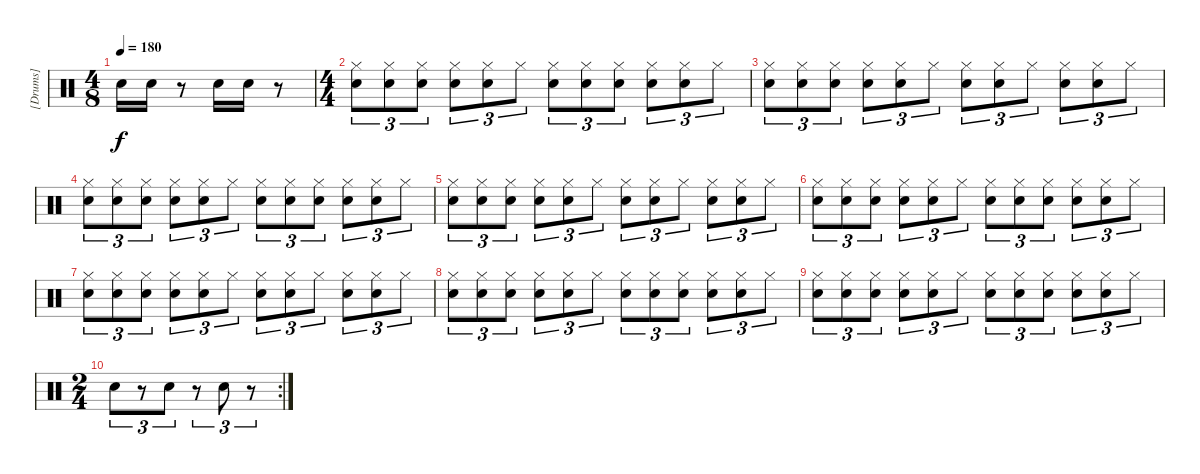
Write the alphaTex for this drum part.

\track ("[Drums]" "[Drums]") {instrument percussion}
\staff {score}
\articulation defaults
\ts (4 8)
\tempo 180
\clef neutral
\ks c "Snare (hit) 2".16{dy f} "Snare (hit) 2".16
r.8 "Snare (hit) 2".16 "Snare (hit) 2".16 r.8 |
\ts (4 4)
("Hi-Hat (closed)" "Snare (hit) 2").8{tu (3 2)} ("Hi-Hat (closed)" "Snare (hit) 2").8{tu (3 2)} ("Hi-Hat (closed)" "Snare (hit) 2").8{tu (3 2)} ("Hi-Hat (closed)" "Snare (hit) 2").8{tu (3 2)} ("Hi-Hat (closed)" "Snare (hit) 2").8{tu (3 2)} "Hi-Hat (closed)".8{tu (3 2)} ("Hi-Hat (closed)" "Snare (hit) 2").8{tu (3 2)} ("Hi-Hat (closed)" "Snare (hit) 2").8{tu (3 2)} ("Hi-Hat (closed)" "Snare (hit) 2").8{tu (3 2)} ("Hi-Hat (closed)" "Snare (hit) 2").8{tu (3 2)} ("Hi-Hat (closed)" "Snare (hit) 2").8{tu (3 2)} "Hi-Hat (closed)".8{tu (3 2)} |
("Hi-Hat (closed)" "Snare (hit) 2").8{tu (3 2)} ("Hi-Hat (closed)" "Snare (hit) 2").8{tu (3 2)} ("Hi-Hat (closed)" "Snare (hit) 2").8{tu (3 2)} ("Hi-Hat (closed)" "Snare (hit) 2").8{tu (3 2)} ("Hi-Hat (closed)" "Snare (hit) 2").8{tu (3 2)} "Hi-Hat (closed)".8{tu (3 2)} ("Hi-Hat (closed)" "Snare (hit) 2").8{tu (3 2)} ("Hi-Hat (closed)" "Snare (hit) 2").8{tu (3 2)} "Hi-Hat (closed)".8{tu (3 2)} ("Hi-Hat (closed)" "Snare (hit) 2").8{tu (3 2)} ("Hi-Hat (closed)" "Snare (hit) 2").8{tu (3 2)} "Hi-Hat (closed)".8{tu (3 2)} |
("Hi-Hat (closed)" "Snare (hit) 2").8{tu (3 2)} ("Hi-Hat (closed)" "Snare (hit) 2").8{tu (3 2)} ("Hi-Hat (closed)" "Snare (hit) 2").8{tu (3 2)} ("Hi-Hat (closed)" "Snare (hit) 2").8{tu (3 2)} ("Hi-Hat (closed)" "Snare (hit) 2").8{tu (3 2)} "Hi-Hat (closed)".8{tu (3 2)} ("Hi-Hat (closed)" "Snare (hit) 2").8{tu (3 2)} ("Hi-Hat (closed)" "Snare (hit) 2").8{tu (3 2)} ("Hi-Hat (closed)" "Snare (hit) 2").8{tu (3 2)} ("Hi-Hat (closed)" "Snare (hit) 2").8{tu (3 2)} ("Hi-Hat (closed)" "Snare (hit) 2").8{tu (3 2)} "Hi-Hat (closed)".8{tu (3 2)} |
("Hi-Hat (closed)" "Snare (hit) 2").8{tu (3 2)} ("Hi-Hat (closed)" "Snare (hit) 2").8{tu (3 2)} ("Hi-Hat (closed)" "Snare (hit) 2").8{tu (3 2)} ("Hi-Hat (closed)" "Snare (hit) 2").8{tu (3 2)} ("Hi-Hat (closed)" "Snare (hit) 2").8{tu (3 2)} "Hi-Hat (closed)".8{tu (3 2)} ("Hi-Hat (closed)" "Snare (hit) 2").8{tu (3 2)} ("Hi-Hat (closed)" "Snare (hit) 2").8{tu (3 2)} "Hi-Hat (closed)".8{tu (3 2)} ("Hi-Hat (closed)" "Snare (hit) 2").8{tu (3 2)} ("Hi-Hat (closed)" "Snare (hit) 2").8{tu (3 2)} "Hi-Hat (closed)".8{tu (3 2)} |
("Hi-Hat (closed)" "Snare (hit) 2").8{tu (3 2)} ("Hi-Hat (closed)" "Snare (hit) 2").8{tu (3 2)} ("Hi-Hat (closed)" "Snare (hit) 2").8{tu (3 2)} ("Hi-Hat (closed)" "Snare (hit) 2").8{tu (3 2)} ("Hi-Hat (closed)" "Snare (hit) 2").8{tu (3 2)} "Hi-Hat (closed)".8{tu (3 2)} ("Hi-Hat (closed)" "Snare (hit) 2").8{tu (3 2)} ("Hi-Hat (closed)" "Snare (hit) 2").8{tu (3 2)} ("Hi-Hat (closed)" "Snare (hit) 2").8{tu (3 2)} ("Hi-Hat (closed)" "Snare (hit) 2").8{tu (3 2)} ("Hi-Hat (closed)" "Snare (hit) 2").8{tu (3 2)} "Hi-Hat (closed)".8{tu (3 2)} |
("Hi-Hat (closed)" "Snare (hit) 2").8{tu (3 2)} ("Hi-Hat (closed)" "Snare (hit) 2").8{tu (3 2)} ("Hi-Hat (closed)" "Snare (hit) 2").8{tu (3 2)} ("Hi-Hat (closed)" "Snare (hit) 2").8{tu (3 2)} ("Hi-Hat (closed)" "Snare (hit) 2").8{tu (3 2)} "Hi-Hat (closed)".8{tu (3 2)} ("Hi-Hat (closed)" "Snare (hit) 2").8{tu (3 2)} ("Hi-Hat (closed)" "Snare (hit) 2").8{tu (3 2)} "Hi-Hat (closed)".8{tu (3 2)} ("Hi-Hat (closed)" "Snare (hit) 2").8{tu (3 2)} ("Hi-Hat (closed)" "Snare (hit) 2").8{tu (3 2)} "Hi-Hat (closed)".8{tu (3 2)} |
("Hi-Hat (closed)" "Snare (hit) 2").8{tu (3 2)} ("Hi-Hat (closed)" "Snare (hit) 2").8{tu (3 2)} ("Hi-Hat (closed)" "Snare (hit) 2").8{tu (3 2)} ("Hi-Hat (closed)" "Snare (hit) 2").8{tu (3 2)} ("Hi-Hat (closed)" "Snare (hit) 2").8{tu (3 2)} "Hi-Hat (closed)".8{tu (3 2)} ("Hi-Hat (closed)" "Snare (hit) 2").8{tu (3 2)} ("Hi-Hat (closed)" "Snare (hit) 2").8{tu (3 2)} ("Hi-Hat (closed)" "Snare (hit) 2").8{tu (3 2)} ("Hi-Hat (closed)" "Snare (hit) 2").8{tu (3 2)} ("Hi-Hat (closed)" "Snare (hit) 2").8{tu (3 2)} "Hi-Hat (closed)".8{tu (3 2)} |
("Hi-Hat (closed)" "Snare (hit) 2").8{tu (3 2)} ("Hi-Hat (closed)" "Snare (hit) 2").8{tu (3 2)} ("Hi-Hat (closed)" "Snare (hit) 2").8{tu (3 2)} ("Hi-Hat (closed)" "Snare (hit) 2").8{tu (3 2)} ("Hi-Hat (closed)" "Snare (hit) 2").8{tu (3 2)} "Hi-Hat (closed)".8{tu (3 2)} ("Hi-Hat (closed)" "Snare (hit) 2").8{tu (3 2)} ("Hi-Hat (closed)" "Snare (hit) 2").8{tu (3 2)} ("Hi-Hat (closed)" "Snare (hit) 2").8{tu (3 2)} ("Hi-Hat (closed)" "Snare (hit) 2").8{tu (3 2)} ("Hi-Hat (closed)" "Snare (hit) 2").8{tu (3 2)} "Hi-Hat (closed)".8{tu (3 2)} |
\rc 2
\ts (2 4)
"Snare (hit) 2".8{tu (3 2)} r.8{tu (3 2)} "Snare (hit) 2".8{tu (3 2)} r.8{tu (3 2)} "Snare (hit) 2".8{tu (3 2)} r.8{tu (3 2)}
